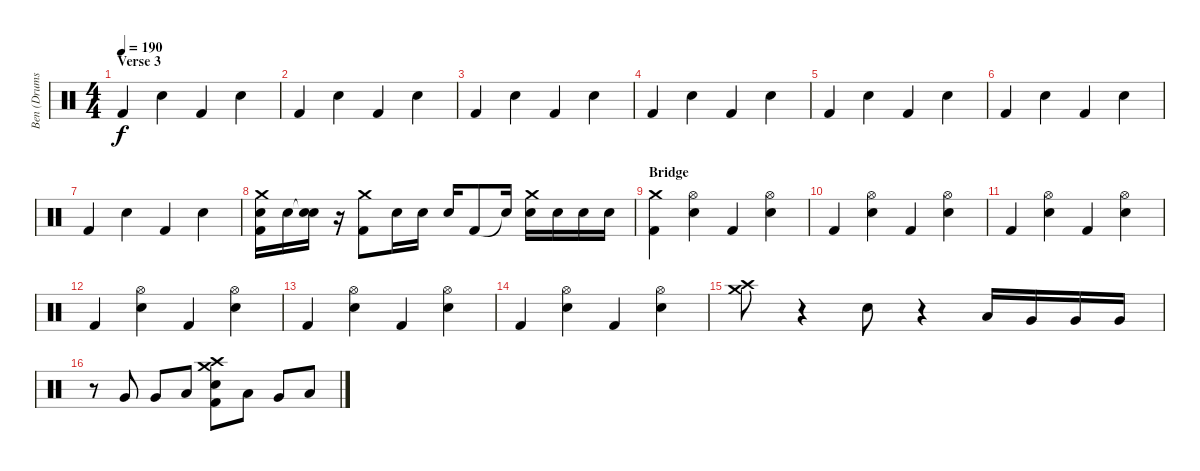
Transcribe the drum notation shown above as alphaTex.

\track ("Ben (Drums)" "Ben (Drums") {instrument percussion}
\staff {score}
\articulation defaults
\ts (4 4)
\section ("" "Verse 3")
\tempo 190
\clef neutral
\ks c "Kick (hit) 2".4{dy f volume 12} "Snare (hit) 2".4 "Kick (hit) 2".4 "Snare (hit) 2".4
|
"Kick (hit) 2".4 "Snare (hit) 2".4 "Kick (hit) 2".4 "Snare (hit) 2".4 |
"Kick (hit) 2".4 "Snare (hit) 2".4 "Kick (hit) 2".4 "Snare (hit) 2".4 |
"Kick (hit) 2".4 "Snare (hit) 2".4 "Kick (hit) 2".4 "Snare (hit) 2".4 |
"Kick (hit) 2".4 "Snare (hit) 2".4 "Kick (hit) 2".4 "Snare (hit) 2".4 |
"Kick (hit) 2".4 "Snare (hit) 2".4 "Kick (hit) 2".4 "Snare (hit) 2".4 |
"Kick (hit) 2".4 "Snare (hit) 2".4 "Kick (hit) 2".4 "Snare (hit) 2".4 |
("Kick (hit) 2" "Snare (hit) 2" "Crash medium (hit)").16{volume 14} "Snare (hit) 2".16 ("Snare (hit)"{t} "Snare (hit) 2").16 r.16 ("Kick (hit) 2" "Crash medium (hit)").8 "Snare (hit) 2".16 "Snare (hit) 2".16 "Snare (hit) 2".16 "Kick (hit) 2".8 "Snare (hit)"{t}.16 ("Snare (hit) 2" "Crash medium (hit)").16 "Snare (hit) 2".16 "Snare (hit) 2".16 "Snare (hit) 2".16 |
\section ("" "Bridge")
("Kick (hit) 2" "Crash medium (hit)").4 ("Snare (hit) 2" "Hi-Hat (open)").4 "Kick (hit) 2".4 ("Snare (hit) 2" "Hi-Hat (open)").4 |
"Kick (hit) 2".4 ("Snare (hit) 2" "Hi-Hat (open)").4 "Kick (hit) 2".4 ("Snare (hit) 2" "Hi-Hat (open)").4 |
"Kick (hit) 2".4 ("Snare (hit) 2" "Hi-Hat (open)").4 "Kick (hit) 2".4 ("Snare (hit) 2" "Hi-Hat (open)").4 |
"Kick (hit) 2".4 ("Snare (hit) 2" "Hi-Hat (open)").4 "Kick (hit) 2".4 ("Snare (hit) 2" "Hi-Hat (open)").4 |
"Kick (hit) 2".4 ("Snare (hit) 2" "Hi-Hat (open)").4 "Kick (hit) 2".4 ("Snare (hit) 2" "Hi-Hat (open)").4 |
"Kick (hit) 2".4 ("Snare (hit) 2" "Hi-Hat (open)").4 "Kick (hit) 2".4 ("Snare (hit) 2" "Hi-Hat (open)").4 |
("Crash medium (hit)" "Crash high (hit)").8 r.4 "Snare (hit) 2".8 r.4 "Low Tom (hit)".16 "Very Low Tom (hit)".16 "Very Low Tom (hit)".16 "Very Low Tom (hit)".16 |
r.8 "Very Low Tom (hit)".8 "Very Low Tom (hit)".8 "Low Tom (hit)".8 ("Crash medium (hit)" "Crash high (hit)" "Kick (hit) 2" "Snare (hit) 2").8 "Low Tom (hit)".8 "Very Low Tom (hit)".8 "Low Tom (hit)".8
